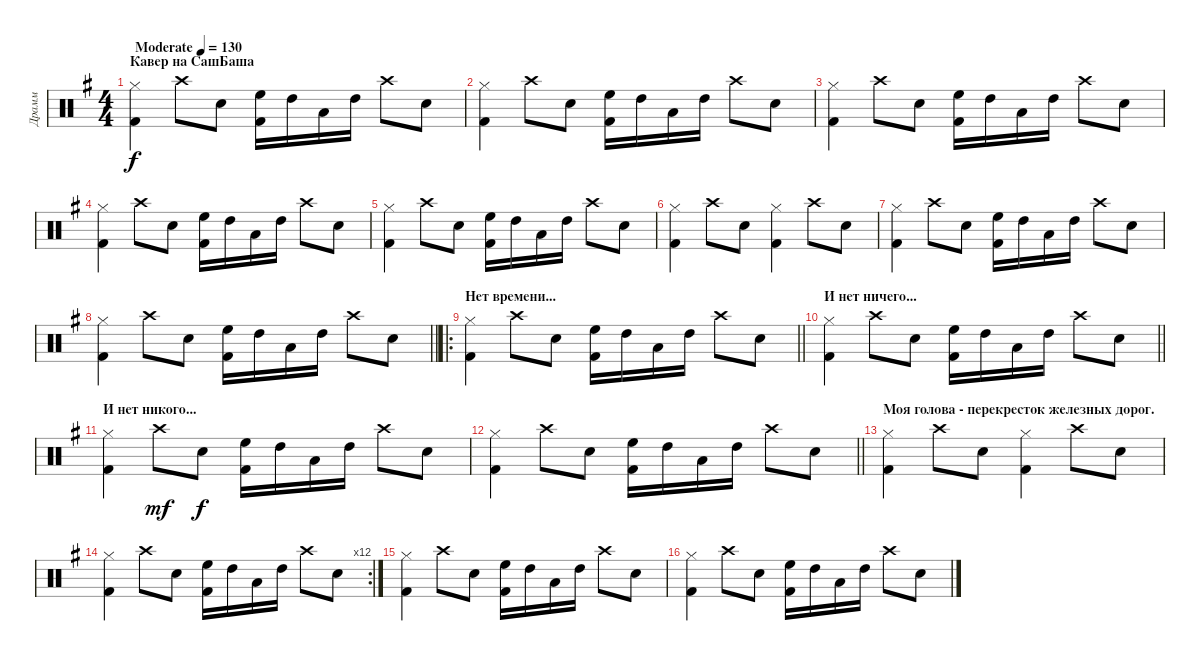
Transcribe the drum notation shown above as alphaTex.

\track ("Драмм" "Драмм") {instrument percussion}
\staff {score}
\articulation defaults
\ts (4 4)
\section ("" "Кавер на СашБаша")
\tempo (130 "Moderate")
\clef neutral
\ks eminor
("Kick (hit) 2" "Hi-Hat (closed)").4{dy f} "Crash high (hit)".8 "Snare (hit) 2".8 ("High Floor Tom (hit)" "Kick (hit) 2").16 "High Tom (hit)".16 "Low Tom (hit)".16 "High Tom (hit)".16 "Crash high (hit)".8 "Snare (hit) 2".8 |
("Kick (hit) 2" "Hi-Hat (closed)").4 "Crash high (hit)".8 "Snare (hit) 2".8 ("High Floor Tom (hit)" "Kick (hit) 2").16 "High Tom (hit)".16 "Low Tom (hit)".16 "High Tom (hit)".16 "Crash high (hit)".8 "Snare (hit) 2".8 |
("Kick (hit) 2" "Hi-Hat (closed)").4 "Crash high (hit)".8 "Snare (hit) 2".8 ("High Floor Tom (hit)" "Kick (hit) 2").16 "High Tom (hit)".16 "Low Tom (hit)".16 "High Tom (hit)".16 "Crash high (hit)".8 "Snare (hit) 2".8 |
("Kick (hit) 2" "Hi-Hat (closed)").4 "Crash high (hit)".8 "Snare (hit) 2".8 ("High Floor Tom (hit)" "Kick (hit) 2").16 "High Tom (hit)".16 "Low Tom (hit)".16 "High Tom (hit)".16 "Crash high (hit)".8 "Snare (hit) 2".8 |
("Kick (hit) 2" "Hi-Hat (closed)").4 "Crash high (hit)".8 "Snare (hit) 2".8 ("High Floor Tom (hit)" "Kick (hit) 2").16 "High Tom (hit)".16 "Low Tom (hit)".16 "High Tom (hit)".16 "Crash high (hit)".8 "Snare (hit) 2".8 |
("Kick (hit) 2" "Hi-Hat (closed)").4 "Crash high (hit)".8 "Snare (hit) 2".8 ("Kick (hit) 2" "Hi-Hat (closed)").4 "Crash high (hit)".8 "Snare (hit) 2".8 |
("Kick (hit) 2" "Hi-Hat (closed)").4 "Crash high (hit)".8 "Snare (hit) 2".8 ("High Floor Tom (hit)" "Kick (hit) 2").16 "High Tom (hit)".16 "Low Tom (hit)".16 "High Tom (hit)".16 "Crash high (hit)".8 "Snare (hit) 2".8 |
\barLineRight lightlight
("Kick (hit) 2" "Hi-Hat (closed)").4 "Crash high (hit)".8 "Snare (hit) 2".8 ("High Floor Tom (hit)" "Kick (hit) 2").16 "High Tom (hit)".16 "Low Tom (hit)".16 "High Tom (hit)".16 "Crash high (hit)".8 "Snare (hit) 2".8 |
\ro
\section ("" "Нет времени...")
\barLineRight lightlight
("Kick (hit) 2" "Hi-Hat (closed)").4 "Crash high (hit)".8 "Snare (hit) 2".8 ("High Floor Tom (hit)" "Kick (hit) 2").16 "High Tom (hit)".16 "Low Tom (hit)".16 "High Tom (hit)".16 "Crash high (hit)".8 "Snare (hit) 2".8 |
\section ("" "И нет ничего...")
\barLineRight lightlight
("Kick (hit) 2" "Hi-Hat (closed)").4 "Crash high (hit)".8 "Snare (hit) 2".8 ("High Floor Tom (hit)" "Kick (hit) 2").16 "High Tom (hit)".16 "Low Tom (hit)".16 "High Tom (hit)".16 "Crash high (hit)".8 "Snare (hit) 2".8 |
\section ("" "И нет никого...")
("Kick (hit) 2" "Hi-Hat (closed)").4 "Crash high (hit)".8{dy mf} "Snare (hit) 2".8{dy f} ("High Floor Tom (hit)" "Kick (hit) 2").16 "High Tom (hit)".16 "Low Tom (hit)".16 "High Tom (hit)".16 "Crash high (hit)".8 "Snare (hit) 2".8 |
\barLineRight lightlight
("Kick (hit) 2" "Hi-Hat (closed)").4 "Crash high (hit)".8 "Snare (hit) 2".8 ("High Floor Tom (hit)" "Kick (hit) 2").16 "High Tom (hit)".16 "Low Tom (hit)".16 "High Tom (hit)".16 "Crash high (hit)".8 "Snare (hit) 2".8 |
\section ("" "Моя голова - перекресток железных дорог.")
("Kick (hit) 2" "Hi-Hat (closed)").4 "Crash high (hit)".8 "Snare (hit) 2".8 ("Kick (hit) 2" "Hi-Hat (closed)").4 "Crash high (hit)".8 "Snare (hit) 2".8 |
\rc 12
("Kick (hit) 2" "Hi-Hat (closed)").4 "Crash high (hit)".8 "Snare (hit) 2".8 ("High Floor Tom (hit)" "Kick (hit) 2").16 "High Tom (hit)".16 "Low Tom (hit)".16 "High Tom (hit)".16 "Crash high (hit)".8 "Snare (hit) 2".8 |
("Kick (hit) 2" "Hi-Hat (closed)").4 "Crash high (hit)".8 "Snare (hit) 2".8 ("High Floor Tom (hit)" "Kick (hit) 2").16 "High Tom (hit)".16 "Low Tom (hit)".16 "High Tom (hit)".16 "Crash high (hit)".8 "Snare (hit) 2".8 |
("Kick (hit) 2" "Hi-Hat (closed)").4 "Crash high (hit)".8 "Snare (hit) 2".8 ("High Floor Tom (hit)" "Kick (hit) 2").16 "High Tom (hit)".16 "Low Tom (hit)".16 "High Tom (hit)".16 "Crash high (hit)".8 "Snare (hit) 2".8
